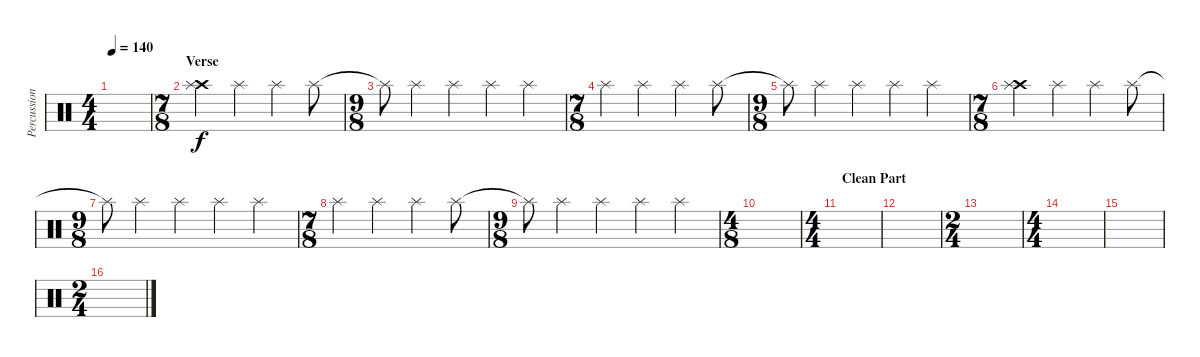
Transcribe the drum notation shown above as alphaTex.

\track ("Percussion" "Percussion") {instrument percussion}
\staff {score}
\articulation defaults
\ts (4 4)
\tempo 140
\clef neutral
\ks c
|
\ts (7 8)
\section ("" "Verse")
("Crash high (hit)" "Splash (hit)").4 "Splash (hit)".4 "Splash (hit)".4 "Splash (hit)".8 |
\ts (9 8)
"Splash (hit)"{t}.8 "Splash (hit)".4 "Splash (hit)".4 "Splash (hit)".4 "Splash (hit)".4 |
\ts (7 8)
"Splash (hit)".4 "Splash (hit)".4 "Splash (hit)".4 "Splash (hit)".8 |
\ts (9 8)
"Splash (hit)"{t}.8 "Splash (hit)".4 "Splash (hit)".4 "Splash (hit)".4 "Splash (hit)".4 |
\ts (7 8)
("Crash high (hit)" "Splash (hit)").4 "Splash (hit)".4 "Splash (hit)".4 "Splash (hit)".8 |
\ts (9 8)
"Splash (hit)"{t}.8 "Splash (hit)".4 "Splash (hit)".4 "Splash (hit)".4 "Splash (hit)".4 |
\ts (7 8)
"Splash (hit)".4 "Splash (hit)".4 "Splash (hit)".4 "Splash (hit)".8 |
\ts (9 8)
"Splash (hit)"{t}.8 "Splash (hit)".4 "Splash (hit)".4 "Splash (hit)".4 "Splash (hit)".4 |
\ts (4 8)
|
\ts (4 4)
\section ("" "Clean Part")
|
|
\ts (2 4)
|
\ts (4 4)
|
|
\ts (2 4)
